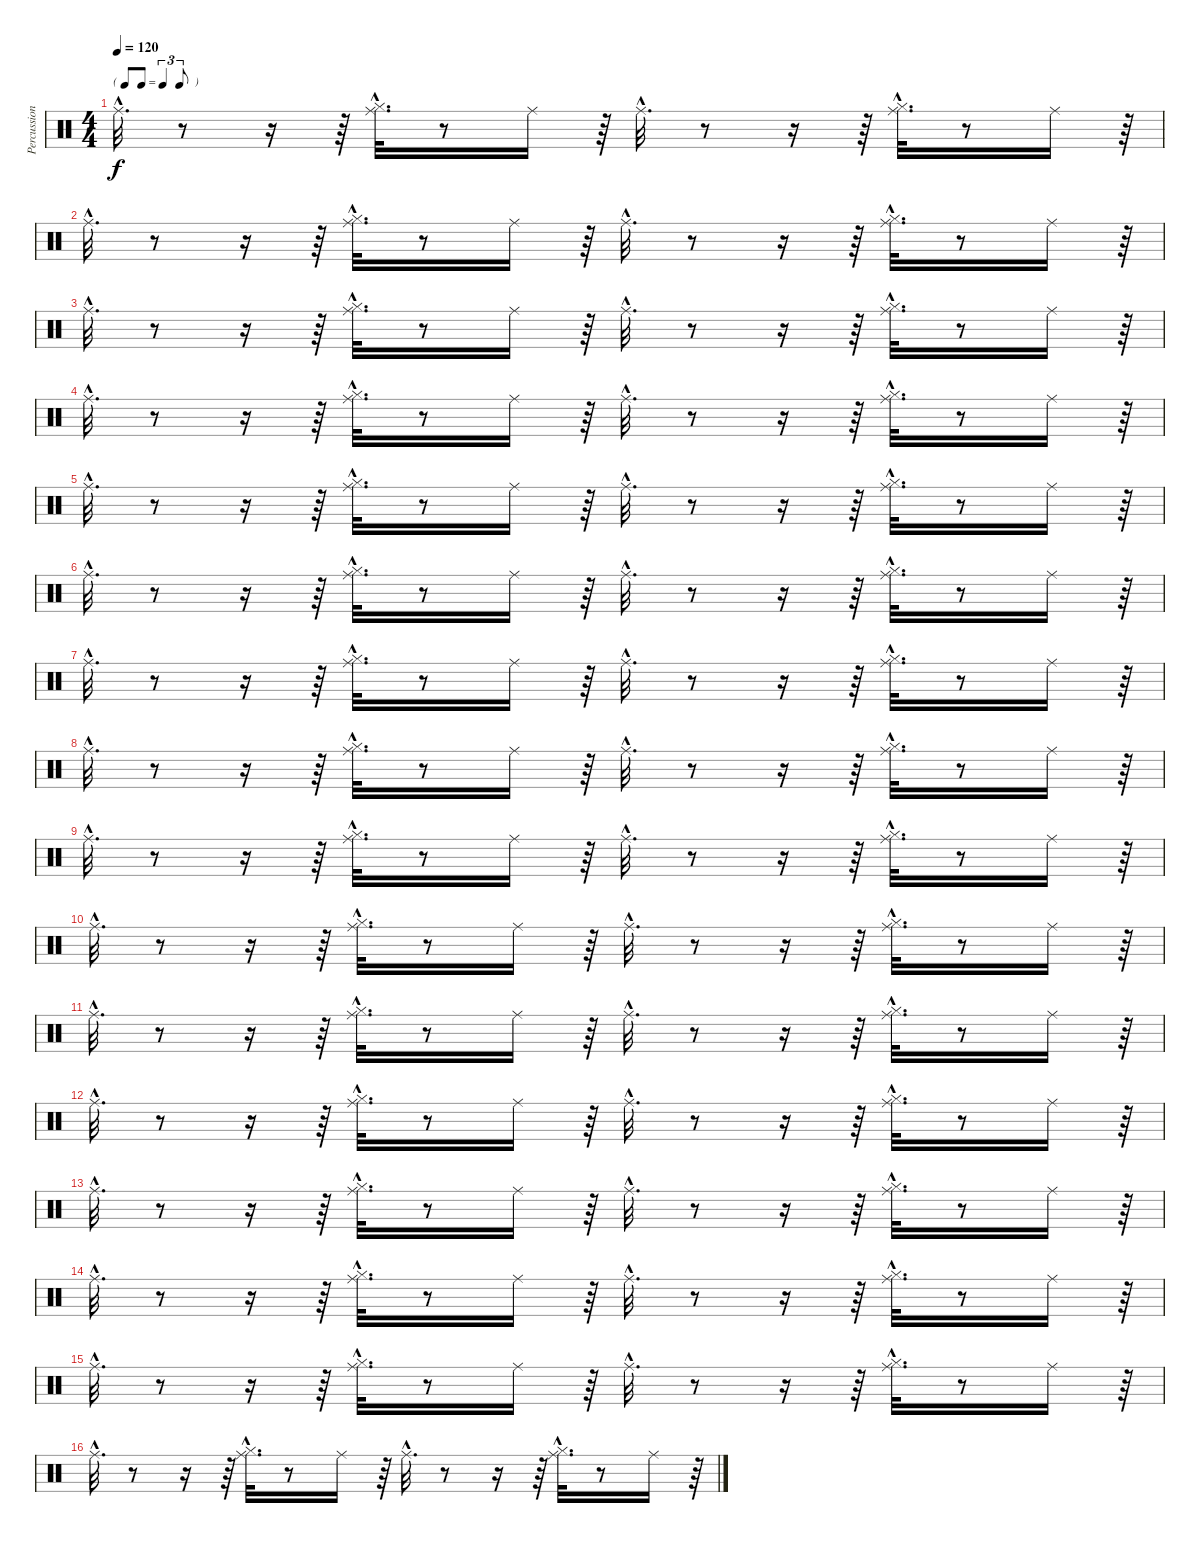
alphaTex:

\track ("Percussions" "Percussion") {instrument percussion}
\staff {score}
\articulation defaults
\ts (4 4)
\tf triplet8th
\tempo 120
\clef neutral
\ks c "Ride (middle)"{hac}.32{d dy f}
r.8 r.16 r.64 ("Hi-Hat (closed)"{hac} "Ride (middle)"{hac}).32{d} r.8 "Ride (middle)".16 r.64 "Ride (middle)"{hac}.32{d} r.8 r.16 r.64 ("Hi-Hat (closed)"{hac} "Ride (middle)"{hac}).32{d} r.8 "Ride (middle)".16 r.64 |
"Ride (middle)"{hac}.32{d} r.8 r.16 r.64 ("Hi-Hat (closed)"{hac} "Ride (middle)"{hac}).32{d} r.8 "Ride (middle)".16 r.64 "Ride (middle)"{hac}.32{d} r.8 r.16 r.64 ("Hi-Hat (closed)"{hac} "Ride (middle)"{hac}).32{d} r.8 "Ride (middle)".16 r.64 |
"Ride (middle)"{hac}.32{d} r.8 r.16 r.64 ("Hi-Hat (closed)"{hac} "Ride (middle)"{hac}).32{d} r.8 "Ride (middle)".16 r.64 "Ride (middle)"{hac}.32{d} r.8 r.16 r.64 ("Hi-Hat (closed)"{hac} "Ride (middle)"{hac}).32{d} r.8 "Ride (middle)".16 r.64 |
"Ride (middle)"{hac}.32{d} r.8 r.16 r.64 ("Hi-Hat (closed)"{hac} "Ride (middle)"{hac}).32{d} r.8 "Ride (middle)".16 r.64 "Ride (middle)"{hac}.32{d} r.8 r.16 r.64 ("Hi-Hat (closed)"{hac} "Ride (middle)"{hac}).32{d} r.8 "Ride (middle)".16 r.64 |
"Ride (middle)"{hac}.32{d} r.8 r.16 r.64 ("Hi-Hat (closed)"{hac} "Ride (middle)"{hac}).32{d} r.8 "Ride (middle)".16 r.64 "Ride (middle)"{hac}.32{d} r.8 r.16 r.64 ("Hi-Hat (closed)"{hac} "Ride (middle)"{hac}).32{d} r.8 "Ride (middle)".16 r.64 |
"Ride (middle)"{hac}.32{d} r.8 r.16 r.64 ("Hi-Hat (closed)"{hac} "Ride (middle)"{hac}).32{d} r.8 "Ride (middle)".16 r.64 "Ride (middle)"{hac}.32{d} r.8 r.16 r.64 ("Hi-Hat (closed)"{hac} "Ride (middle)"{hac}).32{d} r.8 "Ride (middle)".16 r.64 |
"Ride (middle)"{hac}.32{d} r.8 r.16 r.64 ("Hi-Hat (closed)"{hac} "Ride (middle)"{hac}).32{d} r.8 "Ride (middle)".16 r.64 "Ride (middle)"{hac}.32{d} r.8 r.16 r.64 ("Hi-Hat (closed)"{hac} "Ride (middle)"{hac}).32{d} r.8 "Ride (middle)".16 r.64 |
"Ride (middle)"{hac}.32{d} r.8 r.16 r.64 ("Hi-Hat (closed)"{hac} "Ride (middle)"{hac}).32{d} r.8 "Ride (middle)".16 r.64 "Ride (middle)"{hac}.32{d} r.8 r.16 r.64 ("Hi-Hat (closed)"{hac} "Ride (middle)"{hac}).32{d} r.8 "Ride (middle)".16 r.64 |
"Ride (middle)"{hac}.32{d} r.8 r.16 r.64 ("Hi-Hat (closed)"{hac} "Ride (middle)"{hac}).32{d} r.8 "Ride (middle)".16 r.64 "Ride (middle)"{hac}.32{d} r.8 r.16 r.64 ("Hi-Hat (closed)"{hac} "Ride (middle)"{hac}).32{d} r.8 "Ride (middle)".16 r.64 |
"Ride (middle)"{hac}.32{d} r.8 r.16 r.64 ("Hi-Hat (closed)"{hac} "Ride (middle)"{hac}).32{d} r.8 "Ride (middle)".16 r.64 "Ride (middle)"{hac}.32{d} r.8 r.16 r.64 ("Hi-Hat (closed)"{hac} "Ride (middle)"{hac}).32{d} r.8 "Ride (middle)".16 r.64 |
"Ride (middle)"{hac}.32{d} r.8 r.16 r.64 ("Hi-Hat (closed)"{hac} "Ride (middle)"{hac}).32{d} r.8 "Ride (middle)".16 r.64 "Ride (middle)"{hac}.32{d} r.8 r.16 r.64 ("Hi-Hat (closed)"{hac} "Ride (middle)"{hac}).32{d} r.8 "Ride (middle)".16 r.64 |
"Ride (middle)"{hac}.32{d} r.8 r.16 r.64 ("Hi-Hat (closed)"{hac} "Ride (middle)"{hac}).32{d} r.8 "Ride (middle)".16 r.64 "Ride (middle)"{hac}.32{d} r.8 r.16 r.64 ("Hi-Hat (closed)"{hac} "Ride (middle)"{hac}).32{d} r.8 "Ride (middle)".16 r.64 |
"Ride (middle)"{hac}.32{d} r.8 r.16 r.64 ("Hi-Hat (closed)"{hac} "Ride (middle)"{hac}).32{d} r.8 "Ride (middle)".16 r.64 "Ride (middle)"{hac}.32{d} r.8 r.16 r.64 ("Hi-Hat (closed)"{hac} "Ride (middle)"{hac}).32{d} r.8 "Ride (middle)".16 r.64 |
"Ride (middle)"{hac}.32{d} r.8 r.16 r.64 ("Hi-Hat (closed)"{hac} "Ride (middle)"{hac}).32{d} r.8 "Ride (middle)".16 r.64 "Ride (middle)"{hac}.32{d} r.8 r.16 r.64 ("Hi-Hat (closed)"{hac} "Ride (middle)"{hac}).32{d} r.8 "Ride (middle)".16 r.64 |
"Ride (middle)"{hac}.32{d} r.8 r.16 r.64 ("Hi-Hat (closed)"{hac} "Ride (middle)"{hac}).32{d} r.8 "Ride (middle)".16 r.64 "Ride (middle)"{hac}.32{d} r.8 r.16 r.64 ("Hi-Hat (closed)"{hac} "Ride (middle)"{hac}).32{d} r.8 "Ride (middle)".16 r.64 |
"Ride (middle)"{hac}.32{d} r.8 r.16 r.64 ("Hi-Hat (closed)"{hac} "Ride (middle)"{hac}).32{d} r.8 "Ride (middle)".16 r.64 "Ride (middle)"{hac}.32{d} r.8 r.16 r.64 ("Hi-Hat (closed)"{hac} "Ride (middle)"{hac}).32{d} r.8 "Ride (middle)".16 r.64
